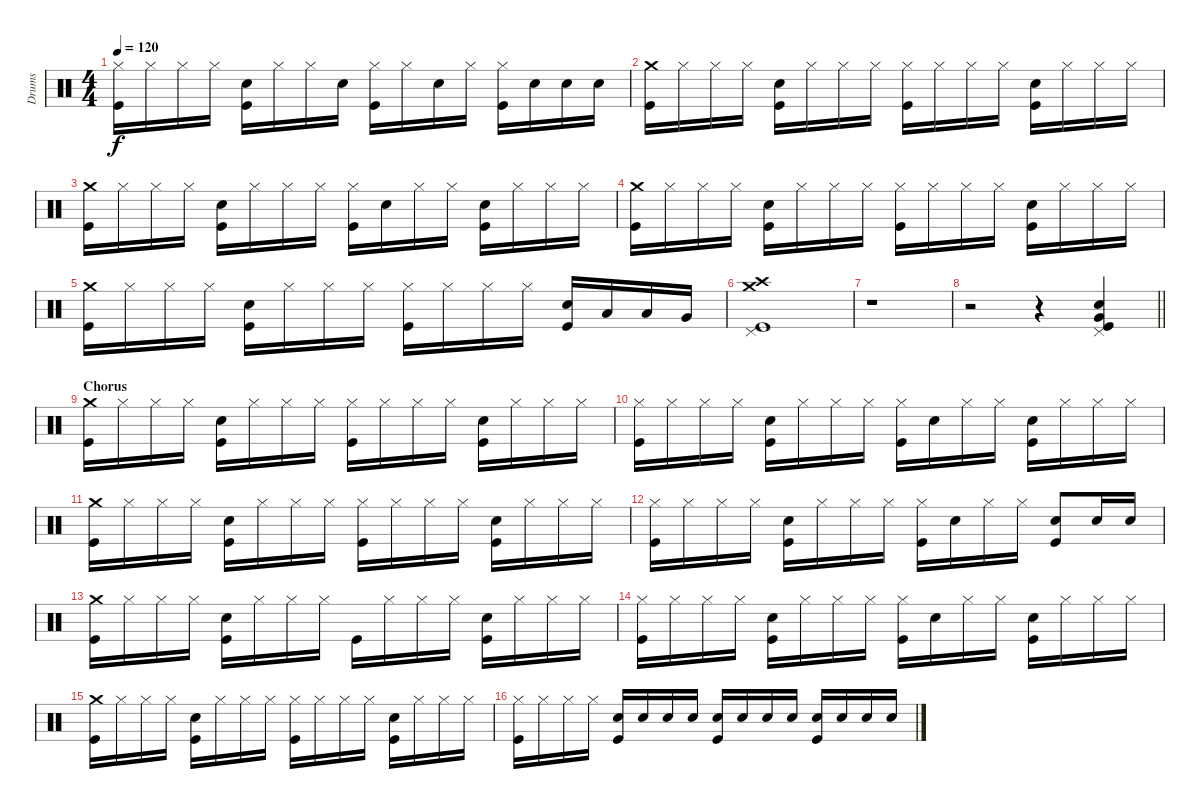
\track ("Drums" "Drums") {instrument percussion}
\staff {score}
\articulation defaults
\ts (4 4)
\tempo 120
\clef neutral
\ks c
("Hi-Hat (closed)" "Kick (hit)").16{dy f} "Hi-Hat (closed)".16 "Hi-Hat (closed)".16 "Hi-Hat (closed)".16 ("Kick (hit)" "Snare (hit) 2").16 "Hi-Hat (closed)".16 "Hi-Hat (closed)".16 "Snare (hit) 2".16 ("Hi-Hat (closed)" "Kick (hit)").16 "Hi-Hat (closed)".16 "Snare (hit) 2".16 "Hi-Hat (closed)".16 ("Hi-Hat (closed)" "Kick (hit)").16 "Snare (hit) 2".16 "Snare (hit) 2".16 "Snare (hit) 2".16 |
("Crash medium (hit)" "Kick (hit)").16 "Hi-Hat (closed)".16 "Hi-Hat (closed)".16 "Hi-Hat (closed)".16 ("Kick (hit)" "Snare (hit) 2").16 "Hi-Hat (closed)".16 "Hi-Hat (closed)".16 "Hi-Hat (closed)".16 ("Hi-Hat (closed)" "Kick (hit)").16 "Hi-Hat (closed)".16 "Hi-Hat (closed)".16 "Hi-Hat (closed)".16 ("Kick (hit)" "Snare (hit) 2").16 "Hi-Hat (closed)".16 "Hi-Hat (closed)".16 "Hi-Hat (closed)".16 |
("Crash medium (hit)" "Kick (hit)").16 "Hi-Hat (closed)".16 "Hi-Hat (closed)".16 "Hi-Hat (closed)".16 ("Kick (hit)" "Snare (hit) 2").16 "Hi-Hat (closed)".16 "Hi-Hat (closed)".16 "Hi-Hat (closed)".16 ("Hi-Hat (closed)" "Kick (hit)").16 "Snare (hit) 2".16 "Hi-Hat (closed)".16 "Hi-Hat (closed)".16 ("Kick (hit)" "Snare (hit) 2").16 "Hi-Hat (closed)".16 "Hi-Hat (closed)".16 "Hi-Hat (closed)".16 |
("Crash medium (hit)" "Kick (hit)").16 "Hi-Hat (closed)".16 "Hi-Hat (closed)".16 "Hi-Hat (closed)".16 ("Kick (hit)" "Snare (hit) 2").16 "Hi-Hat (closed)".16 "Hi-Hat (closed)".16 "Hi-Hat (closed)".16 ("Hi-Hat (closed)" "Kick (hit)").16 "Hi-Hat (closed)".16 "Hi-Hat (closed)".16 "Hi-Hat (closed)".16 ("Kick (hit)" "Snare (hit) 2").16 "Hi-Hat (closed)".16 "Hi-Hat (closed)".16 "Hi-Hat (closed)".16 |
("Crash medium (hit)" "Kick (hit)").16 "Hi-Hat (closed)".16 "Hi-Hat (closed)".16 "Hi-Hat (closed)".16 ("Kick (hit)" "Snare (hit) 2").16 "Hi-Hat (closed)".16 "Hi-Hat (closed)".16 "Hi-Hat (closed)".16 ("Hi-Hat (closed)" "Kick (hit)").16 "Hi-Hat (closed)".16 "Hi-Hat (closed)".16 "Hi-Hat (closed)".16 ("Kick (hit)" "Snare (hit) 2").16 "Low Tom (hit)".16 "Low Tom (hit)".16 "Very Low Tom (hit)".16 |
("Crash medium (hit)" "Kick (hit)" "Pedal Hi-Hat (hit)" "Crash high (hit)").1 |
r.1 |
\barLineRight lightlight
r.2 r.4 ("Snare (hit) 2" "Pedal Hi-Hat (hit)" "Kick (hit)" "Very Low Tom (hit)").4 |
\section ("" "Chorus")
("Crash medium (hit)" "Kick (hit)").16 "Hi-Hat (closed)".16 "Hi-Hat (closed)".16 "Hi-Hat (closed)".16 ("Kick (hit)" "Snare (hit) 2").16 "Hi-Hat (closed)".16 "Hi-Hat (closed)".16 "Hi-Hat (closed)".16 ("Hi-Hat (closed)" "Kick (hit)").16 "Hi-Hat (closed)".16 "Hi-Hat (closed)".16 "Hi-Hat (closed)".16 ("Kick (hit)" "Snare (hit) 2").16 "Hi-Hat (closed)".16 "Hi-Hat (closed)".16 "Hi-Hat (closed)".16 |
("Hi-Hat (closed)" "Kick (hit)").16 "Hi-Hat (closed)".16 "Hi-Hat (closed)".16 "Hi-Hat (closed)".16 ("Kick (hit)" "Snare (hit) 2").16 "Hi-Hat (closed)".16 "Hi-Hat (closed)".16 "Hi-Hat (closed)".16 ("Hi-Hat (closed)" "Kick (hit)").16 "Snare (hit) 2".16 "Hi-Hat (closed)".16 "Hi-Hat (closed)".16 ("Kick (hit)" "Snare (hit) 2").16 "Hi-Hat (closed)".16 "Hi-Hat (closed)".16 "Hi-Hat (closed)".16 |
("Crash medium (hit)" "Kick (hit)").16 "Hi-Hat (closed)".16 "Hi-Hat (closed)".16 "Hi-Hat (closed)".16 ("Kick (hit)" "Snare (hit) 2").16 "Hi-Hat (closed)".16 "Hi-Hat (closed)".16 "Hi-Hat (closed)".16 ("Hi-Hat (closed)" "Kick (hit)").16 "Hi-Hat (closed)".16 "Hi-Hat (closed)".16 "Hi-Hat (closed)".16 ("Kick (hit)" "Snare (hit) 2").16 "Hi-Hat (closed)".16 "Hi-Hat (closed)".16 "Hi-Hat (closed)".16 |
("Hi-Hat (closed)" "Kick (hit)").16 "Hi-Hat (closed)".16 "Hi-Hat (closed)".16 "Hi-Hat (closed)".16 ("Kick (hit)" "Snare (hit) 2").16 "Hi-Hat (closed)".16 "Hi-Hat (closed)".16 "Hi-Hat (closed)".16 ("Hi-Hat (closed)" "Kick (hit)").16 "Snare (hit) 2".16 "Hi-Hat (closed)".16 "Hi-Hat (closed)".16 ("Kick (hit)" "Snare (hit) 2").8 "Snare (hit) 2".16 "Snare (hit) 2".16 |
("Crash medium (hit)" "Kick (hit)").16 "Hi-Hat (closed)".16 "Hi-Hat (closed)".16 "Hi-Hat (closed)".16 ("Kick (hit)" "Snare (hit) 2").16 "Hi-Hat (closed)".16 "Hi-Hat (closed)".16 "Hi-Hat (closed)".16 "Kick (hit)".16 "Hi-Hat (closed)".16 "Hi-Hat (closed)".16 "Hi-Hat (closed)".16 ("Kick (hit)" "Snare (hit) 2").16 "Hi-Hat (closed)".16 "Hi-Hat (closed)".16 "Hi-Hat (closed)".16 |
("Hi-Hat (closed)" "Kick (hit)").16 "Hi-Hat (closed)".16 "Hi-Hat (closed)".16 "Hi-Hat (closed)".16 ("Kick (hit)" "Snare (hit) 2").16 "Hi-Hat (closed)".16 "Hi-Hat (closed)".16 "Hi-Hat (closed)".16 ("Hi-Hat (closed)" "Kick (hit)").16 "Snare (hit) 2".16 "Hi-Hat (closed)".16 "Hi-Hat (closed)".16 ("Kick (hit)" "Snare (hit) 2").16 "Hi-Hat (closed)".16 "Hi-Hat (closed)".16 "Hi-Hat (closed)".16 |
("Crash medium (hit)" "Kick (hit)").16 "Hi-Hat (closed)".16 "Hi-Hat (closed)".16 "Hi-Hat (closed)".16 ("Kick (hit)" "Snare (hit) 2").16 "Hi-Hat (closed)".16 "Hi-Hat (closed)".16 "Hi-Hat (closed)".16 ("Hi-Hat (closed)" "Kick (hit)").16 "Hi-Hat (closed)".16 "Hi-Hat (closed)".16 "Hi-Hat (closed)".16 ("Kick (hit)" "Snare (hit) 2").16 "Hi-Hat (closed)".16 "Hi-Hat (closed)".16 "Hi-Hat (closed)".16 |
("Hi-Hat (closed)" "Kick (hit)").16 "Hi-Hat (closed)".16 "Hi-Hat (closed)".16 "Hi-Hat (closed)".16 ("Kick (hit)" "Snare (hit) 2").16 "Snare (hit) 2".16 "Snare (hit) 2".16 "Snare (hit) 2".16 ("Kick (hit)" "Snare (hit) 2").16 "Snare (hit) 2".16 "Snare (hit) 2".16 "Snare (hit) 2".16 ("Kick (hit)" "Snare (hit) 2").16 "Snare (hit) 2".16 "Snare (hit) 2".16 "Snare (hit) 2".16
